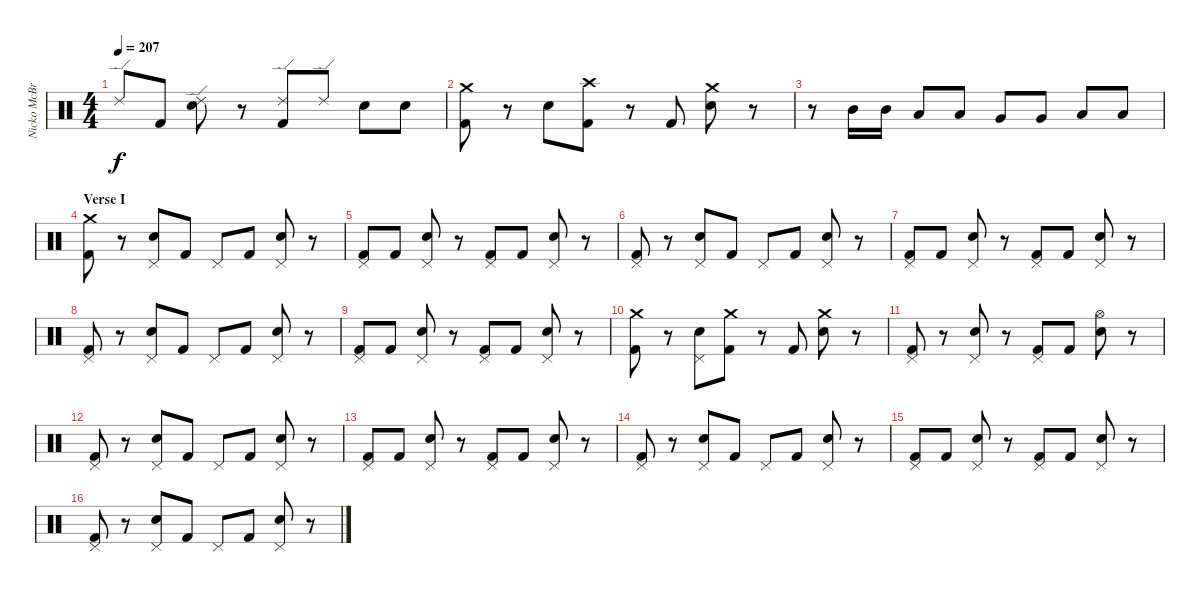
\track ("Nicko McBrain" "Nicko McBr") {instrument percussion}
\staff {score}
\articulation defaults
\ts (4 4)
\tempo 207
\clef neutral
\ks c "Ride (edge) 2".8{dy f} "Kick (hit) 2".8
("Ride (edge) 2" "Snare (hit) 2").8 r.8 ("Ride (edge) 2" "Kick (hit) 2").8 "Ride (edge) 2".8 "Snare (hit) 2".8 "Snare (hit) 2".8 |
("Crash medium (hit)" "Kick (hit) 2").8 r.8 "Snare (hit) 2".8 ("Crash high (hit)" "Kick (hit) 2").8 r.8 "Kick (hit) 2".8 ("Crash medium (hit)" "Snare (hit) 2").8 r.8 |
r.8 "Mid Tom (hit)".16 "Mid Tom (hit)".16 "Low Tom (hit)".8 "Low Tom (hit)".8 "Very Low Tom (hit)".8 "Very Low Tom (hit)".8 "Low Floor Tom (hit)".8 "Low Floor Tom (hit)".8 |
\section ("" "Verse I")
("Crash medium (hit)" "Kick (hit) 2").8 r.8 ("Pedal Hi-Hat (hit)" "Snare (hit) 2").8 "Kick (hit) 2".8 "Pedal Hi-Hat (hit)".8 "Kick (hit) 2".8 ("Pedal Hi-Hat (hit)" "Snare (hit) 2").8 r.8 |
("Pedal Hi-Hat (hit)" "Kick (hit) 2").8 "Kick (hit) 2".8 ("Pedal Hi-Hat (hit)" "Snare (hit) 2").8 r.8 ("Pedal Hi-Hat (hit)" "Kick (hit) 2").8 "Kick (hit) 2".8 ("Pedal Hi-Hat (hit)" "Snare (hit) 2").8 r.8 |
("Pedal Hi-Hat (hit)" "Kick (hit) 2").8 r.8 ("Pedal Hi-Hat (hit)" "Snare (hit) 2").8 "Kick (hit) 2".8 "Pedal Hi-Hat (hit)".8 "Kick (hit) 2".8 ("Pedal Hi-Hat (hit)" "Snare (hit) 2").8 r.8 |
("Pedal Hi-Hat (hit)" "Kick (hit) 2").8 "Kick (hit) 2".8 ("Pedal Hi-Hat (hit)" "Snare (hit) 2").8 r.8 ("Pedal Hi-Hat (hit)" "Kick (hit) 2").8 "Kick (hit) 2".8 ("Pedal Hi-Hat (hit)" "Snare (hit) 2").8 r.8 |
("Pedal Hi-Hat (hit)" "Kick (hit) 2").8 r.8 ("Pedal Hi-Hat (hit)" "Snare (hit) 2").8 "Kick (hit) 2".8 "Pedal Hi-Hat (hit)".8 "Kick (hit) 2".8 ("Pedal Hi-Hat (hit)" "Snare (hit) 2").8 r.8 |
("Pedal Hi-Hat (hit)" "Kick (hit) 2").8 "Kick (hit) 2".8 ("Pedal Hi-Hat (hit)" "Snare (hit) 2").8 r.8 ("Pedal Hi-Hat (hit)" "Kick (hit) 2").8 "Kick (hit) 2".8 ("Pedal Hi-Hat (hit)" "Snare (hit) 2").8 r.8 |
("Crash medium (hit)" "Kick (hit) 2").8 r.8 ("Pedal Hi-Hat (hit)" "Snare (hit) 2").8 ("Crash medium (hit)" "Kick (hit) 2").8 r.8 "Kick (hit) 2".8 ("Crash medium (hit)" "Snare (hit) 2").8 r.8 |
("Pedal Hi-Hat (hit)" "Kick (hit) 2").8 r.8 ("Pedal Hi-Hat (hit)" "Snare (hit) 2").8 r.8 ("Pedal Hi-Hat (hit)" "Kick (hit) 2").8 "Kick (hit) 2".8 ("Hi-Hat (open)" "Snare (hit) 2").8 r.8 |
("Pedal Hi-Hat (hit)" "Kick (hit) 2").8 r.8 ("Pedal Hi-Hat (hit)" "Snare (hit) 2").8 "Kick (hit) 2".8 "Pedal Hi-Hat (hit)".8 "Kick (hit) 2".8 ("Pedal Hi-Hat (hit)" "Snare (hit) 2").8 r.8 |
("Pedal Hi-Hat (hit)" "Kick (hit) 2").8 "Kick (hit) 2".8 ("Pedal Hi-Hat (hit)" "Snare (hit) 2").8 r.8 ("Pedal Hi-Hat (hit)" "Kick (hit) 2").8 "Kick (hit) 2".8 ("Pedal Hi-Hat (hit)" "Snare (hit) 2").8 r.8 |
("Pedal Hi-Hat (hit)" "Kick (hit) 2").8 r.8 ("Pedal Hi-Hat (hit)" "Snare (hit) 2").8 "Kick (hit) 2".8 "Pedal Hi-Hat (hit)".8 "Kick (hit) 2".8 ("Pedal Hi-Hat (hit)" "Snare (hit) 2").8 r.8 |
("Pedal Hi-Hat (hit)" "Kick (hit) 2").8 "Kick (hit) 2".8 ("Pedal Hi-Hat (hit)" "Snare (hit) 2").8 r.8 ("Pedal Hi-Hat (hit)" "Kick (hit) 2").8 "Kick (hit) 2".8 ("Pedal Hi-Hat (hit)" "Snare (hit) 2").8 r.8 |
("Pedal Hi-Hat (hit)" "Kick (hit) 2").8 r.8 ("Pedal Hi-Hat (hit)" "Snare (hit) 2").8 "Kick (hit) 2".8 "Pedal Hi-Hat (hit)".8 "Kick (hit) 2".8 ("Pedal Hi-Hat (hit)" "Snare (hit) 2").8 r.8
